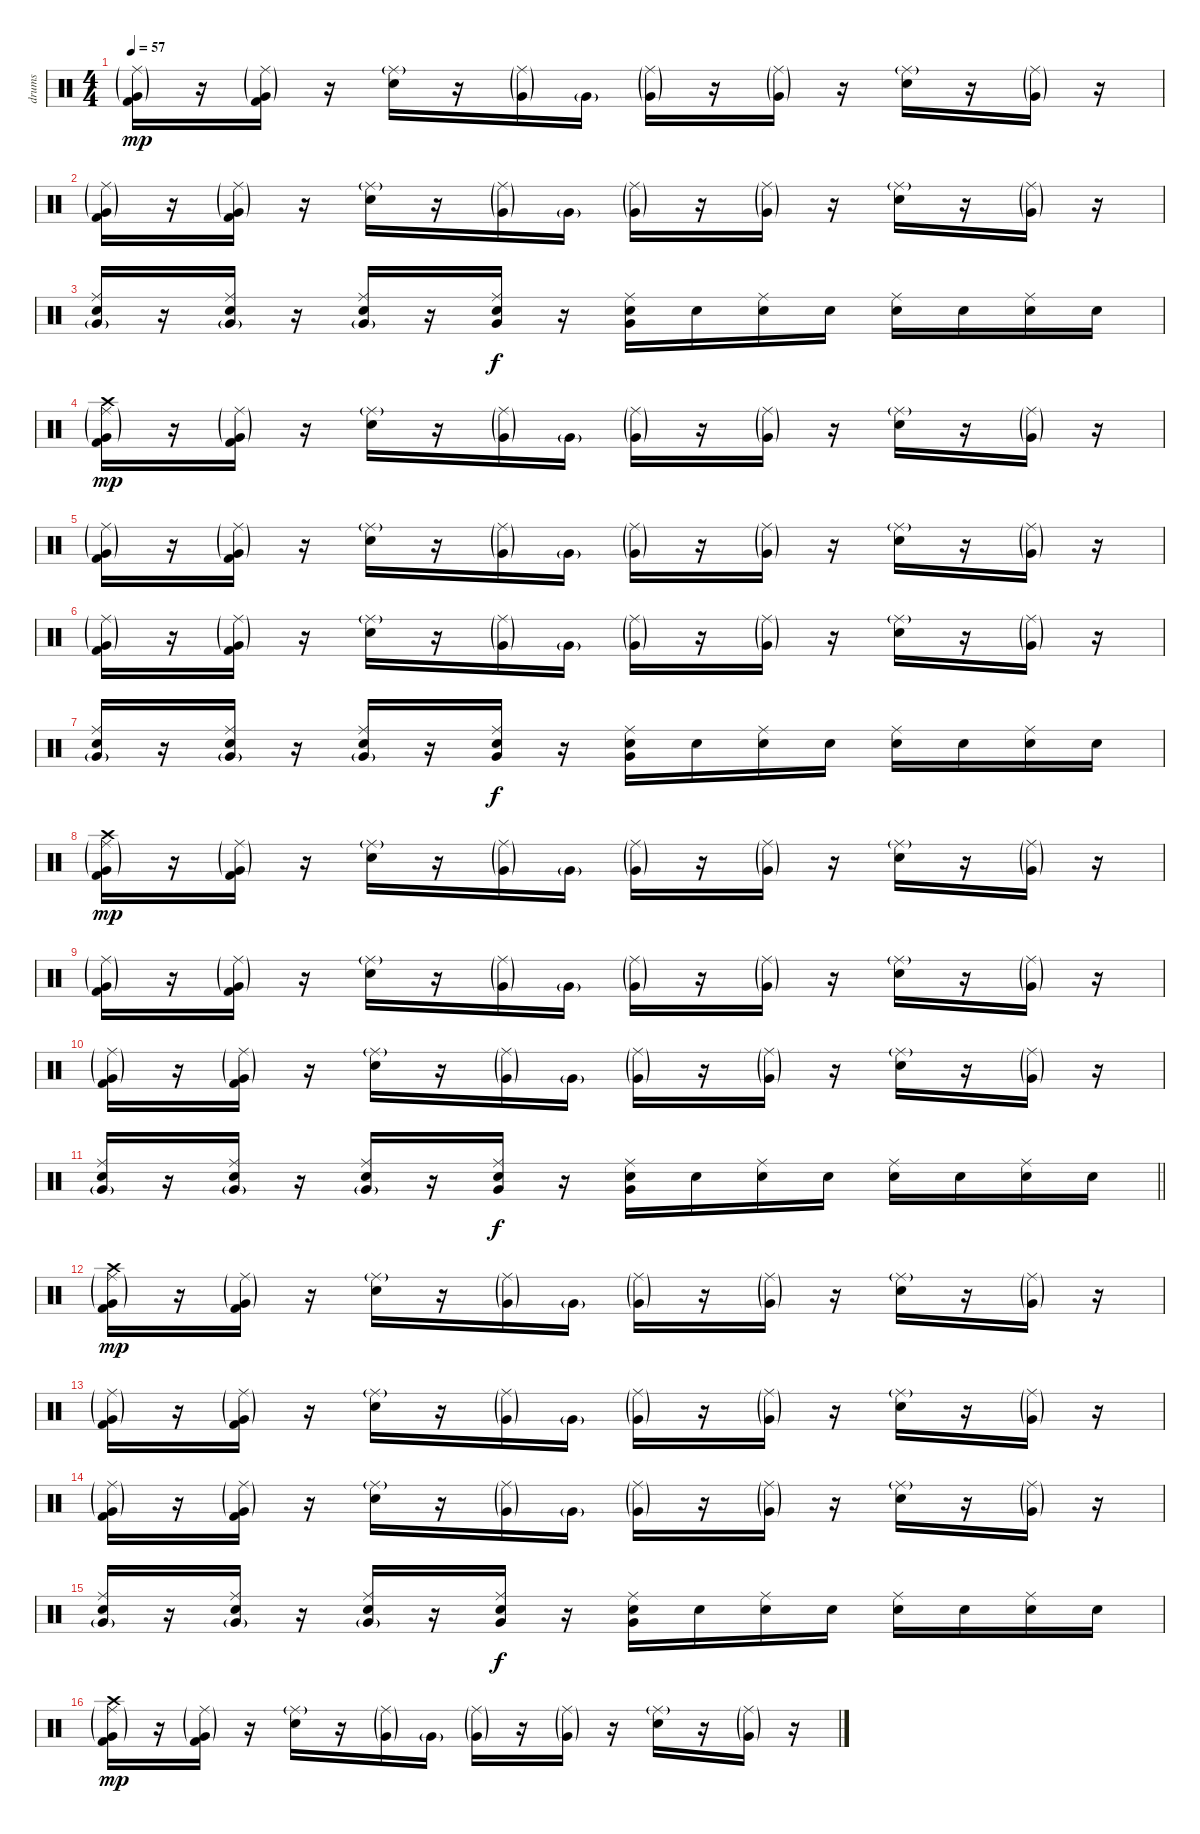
\track ("drums" "drums") {instrument percussion}
\staff {score}
\articulation defaults
\ts (4 4)
\tempo 57
\clef neutral
\ks c
("Kick (hit) 2" "Very Low Tom (hit)"{g} "Ride (middle)"{g}).16{dy mp} r.16 ("Kick (hit) 2" "Very Low Tom (hit)"{g} "Ride (middle)"{g}).16 r.16 ("Electric Snare (hit)" "Ride (middle)"{g}).16 r.16 ("Very Low Tom (hit)"{g} "Ride (middle)"{g}).16 "Very Low Tom (hit)"{g}.16 ("Very Low Tom (hit)"{g} "Ride (middle)"{g}).16 r.16 ("Very Low Tom (hit)"{g} "Ride (middle)"{g}).16 r.16 ("Electric Snare (hit)" "Ride (middle)"{g}).16 r.16 ("Very Low Tom (hit)"{g} "Ride (middle)"{g}).16 r.16 |
("Kick (hit) 2" "Very Low Tom (hit)"{g} "Ride (middle)"{g}).16 r.16 ("Kick (hit) 2" "Very Low Tom (hit)"{g} "Ride (middle)"{g}).16 r.16 ("Electric Snare (hit)" "Ride (middle)"{g}).16 r.16 ("Very Low Tom (hit)"{g} "Ride (middle)"{g}).16 "Very Low Tom (hit)"{g}.16 ("Very Low Tom (hit)"{g} "Ride (middle)"{g}).16 r.16 ("Very Low Tom (hit)"{g} "Ride (middle)"{g}).16 r.16 ("Electric Snare (hit)" "Ride (middle)"{g}).16 r.16 ("Very Low Tom (hit)"{g} "Ride (middle)"{g}).16 r.16 |
("Electric Snare (hit)" "Very Low Tom (hit)"{g} "Ride (middle)").16 r.16 ("Electric Snare (hit)" "Very Low Tom (hit)"{g} "Ride (middle)").16 r.16 ("Electric Snare (hit)" "Very Low Tom (hit)"{g} "Ride (middle)").16 r.16 ("Electric Snare (hit)" "Very Low Tom (hit)" "Ride (middle)").16{dy f} r.16 ("Electric Snare (hit)" "Very Low Tom (hit)" "Ride (middle)").16 "Electric Snare (hit)".16 ("Electric Snare (hit)" "Ride (middle)").16 "Electric Snare (hit)".16 ("Electric Snare (hit)" "Ride (middle)").16 "Electric Snare (hit)".16 ("Electric Snare (hit)" "Ride (middle)").16 "Electric Snare (hit)".16 |
("Kick (hit) 2" "Very Low Tom (hit)"{g} "Ride (middle)"{g} "Crash high (hit)").16{dy mp} r.16 ("Kick (hit) 2" "Very Low Tom (hit)"{g} "Ride (middle)"{g}).16 r.16 ("Electric Snare (hit)" "Ride (middle)"{g}).16 r.16 ("Very Low Tom (hit)"{g} "Ride (middle)"{g}).16 "Very Low Tom (hit)"{g}.16 ("Very Low Tom (hit)"{g} "Ride (middle)"{g}).16 r.16 ("Very Low Tom (hit)"{g} "Ride (middle)"{g}).16 r.16 ("Electric Snare (hit)" "Ride (middle)"{g}).16 r.16 ("Very Low Tom (hit)"{g} "Ride (middle)"{g}).16 r.16 |
("Kick (hit) 2" "Very Low Tom (hit)"{g} "Ride (middle)"{g}).16 r.16 ("Kick (hit) 2" "Very Low Tom (hit)"{g} "Ride (middle)"{g}).16 r.16 ("Electric Snare (hit)" "Ride (middle)"{g}).16 r.16 ("Very Low Tom (hit)"{g} "Ride (middle)"{g}).16 "Very Low Tom (hit)"{g}.16 ("Very Low Tom (hit)"{g} "Ride (middle)"{g}).16 r.16 ("Very Low Tom (hit)"{g} "Ride (middle)"{g}).16 r.16 ("Electric Snare (hit)" "Ride (middle)"{g}).16 r.16 ("Very Low Tom (hit)"{g} "Ride (middle)"{g}).16 r.16 |
("Kick (hit) 2" "Very Low Tom (hit)"{g} "Ride (middle)"{g}).16 r.16 ("Kick (hit) 2" "Very Low Tom (hit)"{g} "Ride (middle)"{g}).16 r.16 ("Electric Snare (hit)" "Ride (middle)"{g}).16 r.16 ("Very Low Tom (hit)"{g} "Ride (middle)"{g}).16 "Very Low Tom (hit)"{g}.16 ("Very Low Tom (hit)"{g} "Ride (middle)"{g}).16 r.16 ("Very Low Tom (hit)"{g} "Ride (middle)"{g}).16 r.16 ("Electric Snare (hit)" "Ride (middle)"{g}).16 r.16 ("Very Low Tom (hit)"{g} "Ride (middle)"{g}).16 r.16 |
("Electric Snare (hit)" "Very Low Tom (hit)"{g} "Ride (middle)").16 r.16 ("Electric Snare (hit)" "Very Low Tom (hit)"{g} "Ride (middle)").16 r.16 ("Electric Snare (hit)" "Very Low Tom (hit)"{g} "Ride (middle)").16 r.16 ("Electric Snare (hit)" "Very Low Tom (hit)" "Ride (middle)").16{dy f} r.16 ("Electric Snare (hit)" "Very Low Tom (hit)" "Ride (middle)").16 "Electric Snare (hit)".16 ("Electric Snare (hit)" "Ride (middle)").16 "Electric Snare (hit)".16 ("Electric Snare (hit)" "Ride (middle)").16 "Electric Snare (hit)".16 ("Electric Snare (hit)" "Ride (middle)").16 "Electric Snare (hit)".16 |
("Kick (hit) 2" "Very Low Tom (hit)"{g} "Ride (middle)"{g} "Crash high (hit)").16{dy mp} r.16 ("Kick (hit) 2" "Very Low Tom (hit)"{g} "Ride (middle)"{g}).16 r.16 ("Electric Snare (hit)" "Ride (middle)"{g}).16 r.16 ("Very Low Tom (hit)"{g} "Ride (middle)"{g}).16 "Very Low Tom (hit)"{g}.16 ("Very Low Tom (hit)"{g} "Ride (middle)"{g}).16 r.16 ("Very Low Tom (hit)"{g} "Ride (middle)"{g}).16 r.16 ("Electric Snare (hit)" "Ride (middle)"{g}).16 r.16 ("Very Low Tom (hit)"{g} "Ride (middle)"{g}).16 r.16 |
("Kick (hit) 2" "Very Low Tom (hit)"{g} "Ride (middle)"{g}).16 r.16 ("Kick (hit) 2" "Very Low Tom (hit)"{g} "Ride (middle)"{g}).16 r.16 ("Electric Snare (hit)" "Ride (middle)"{g}).16 r.16 ("Very Low Tom (hit)"{g} "Ride (middle)"{g}).16 "Very Low Tom (hit)"{g}.16 ("Very Low Tom (hit)"{g} "Ride (middle)"{g}).16 r.16 ("Very Low Tom (hit)"{g} "Ride (middle)"{g}).16 r.16 ("Electric Snare (hit)" "Ride (middle)"{g}).16 r.16 ("Very Low Tom (hit)"{g} "Ride (middle)"{g}).16 r.16 |
("Kick (hit) 2" "Very Low Tom (hit)"{g} "Ride (middle)"{g}).16 r.16 ("Kick (hit) 2" "Very Low Tom (hit)"{g} "Ride (middle)"{g}).16 r.16 ("Electric Snare (hit)" "Ride (middle)"{g}).16 r.16 ("Very Low Tom (hit)"{g} "Ride (middle)"{g}).16 "Very Low Tom (hit)"{g}.16 ("Very Low Tom (hit)"{g} "Ride (middle)"{g}).16 r.16 ("Very Low Tom (hit)"{g} "Ride (middle)"{g}).16 r.16 ("Electric Snare (hit)" "Ride (middle)"{g}).16 r.16 ("Very Low Tom (hit)"{g} "Ride (middle)"{g}).16 r.16 |
\barLineRight lightlight
("Electric Snare (hit)" "Very Low Tom (hit)"{g} "Ride (middle)").16 r.16 ("Electric Snare (hit)" "Very Low Tom (hit)"{g} "Ride (middle)").16 r.16 ("Electric Snare (hit)" "Very Low Tom (hit)"{g} "Ride (middle)").16 r.16 ("Electric Snare (hit)" "Very Low Tom (hit)" "Ride (middle)").16{dy f} r.16 ("Electric Snare (hit)" "Very Low Tom (hit)" "Ride (middle)").16 "Electric Snare (hit)".16 ("Electric Snare (hit)" "Ride (middle)").16 "Electric Snare (hit)".16 ("Electric Snare (hit)" "Ride (middle)").16 "Electric Snare (hit)".16 ("Electric Snare (hit)" "Ride (middle)").16 "Electric Snare (hit)".16 |
("Kick (hit) 2" "Very Low Tom (hit)"{g} "Ride (middle)"{g} "Crash high (hit)").16{dy mp} r.16 ("Kick (hit) 2" "Very Low Tom (hit)"{g} "Ride (middle)"{g}).16 r.16 ("Electric Snare (hit)" "Ride (middle)"{g}).16 r.16 ("Very Low Tom (hit)"{g} "Ride (middle)"{g}).16 "Very Low Tom (hit)"{g}.16 ("Very Low Tom (hit)"{g} "Ride (middle)"{g}).16 r.16 ("Very Low Tom (hit)"{g} "Ride (middle)"{g}).16 r.16 ("Electric Snare (hit)" "Ride (middle)"{g}).16 r.16 ("Very Low Tom (hit)"{g} "Ride (middle)"{g}).16 r.16 |
("Kick (hit) 2" "Very Low Tom (hit)"{g} "Ride (middle)"{g}).16 r.16 ("Kick (hit) 2" "Very Low Tom (hit)"{g} "Ride (middle)"{g}).16 r.16 ("Electric Snare (hit)" "Ride (middle)"{g}).16 r.16 ("Very Low Tom (hit)"{g} "Ride (middle)"{g}).16 "Very Low Tom (hit)"{g}.16 ("Very Low Tom (hit)"{g} "Ride (middle)"{g}).16 r.16 ("Very Low Tom (hit)"{g} "Ride (middle)"{g}).16 r.16 ("Electric Snare (hit)" "Ride (middle)"{g}).16 r.16 ("Very Low Tom (hit)"{g} "Ride (middle)"{g}).16 r.16 |
("Kick (hit) 2" "Very Low Tom (hit)"{g} "Ride (middle)"{g}).16 r.16 ("Kick (hit) 2" "Very Low Tom (hit)"{g} "Ride (middle)"{g}).16 r.16 ("Electric Snare (hit)" "Ride (middle)"{g}).16 r.16 ("Very Low Tom (hit)"{g} "Ride (middle)"{g}).16 "Very Low Tom (hit)"{g}.16 ("Very Low Tom (hit)"{g} "Ride (middle)"{g}).16 r.16 ("Very Low Tom (hit)"{g} "Ride (middle)"{g}).16 r.16 ("Electric Snare (hit)" "Ride (middle)"{g}).16 r.16 ("Very Low Tom (hit)"{g} "Ride (middle)"{g}).16 r.16 |
("Electric Snare (hit)" "Very Low Tom (hit)"{g} "Ride (middle)").16 r.16 ("Electric Snare (hit)" "Very Low Tom (hit)"{g} "Ride (middle)").16 r.16 ("Electric Snare (hit)" "Very Low Tom (hit)"{g} "Ride (middle)").16 r.16 ("Electric Snare (hit)" "Very Low Tom (hit)" "Ride (middle)").16{dy f} r.16 ("Electric Snare (hit)" "Very Low Tom (hit)" "Ride (middle)").16 "Electric Snare (hit)".16 ("Electric Snare (hit)" "Ride (middle)").16 "Electric Snare (hit)".16 ("Electric Snare (hit)" "Ride (middle)").16 "Electric Snare (hit)".16 ("Electric Snare (hit)" "Ride (middle)").16 "Electric Snare (hit)".16 |
("Kick (hit) 2" "Very Low Tom (hit)"{g} "Ride (middle)"{g} "Crash high (hit)").16{dy mp} r.16 ("Kick (hit) 2" "Very Low Tom (hit)"{g} "Ride (middle)"{g}).16 r.16 ("Electric Snare (hit)" "Ride (middle)"{g}).16 r.16 ("Very Low Tom (hit)"{g} "Ride (middle)"{g}).16 "Very Low Tom (hit)"{g}.16 ("Very Low Tom (hit)"{g} "Ride (middle)"{g}).16 r.16 ("Very Low Tom (hit)"{g} "Ride (middle)"{g}).16 r.16 ("Electric Snare (hit)" "Ride (middle)"{g}).16 r.16 ("Very Low Tom (hit)"{g} "Ride (middle)"{g}).16 r.16
